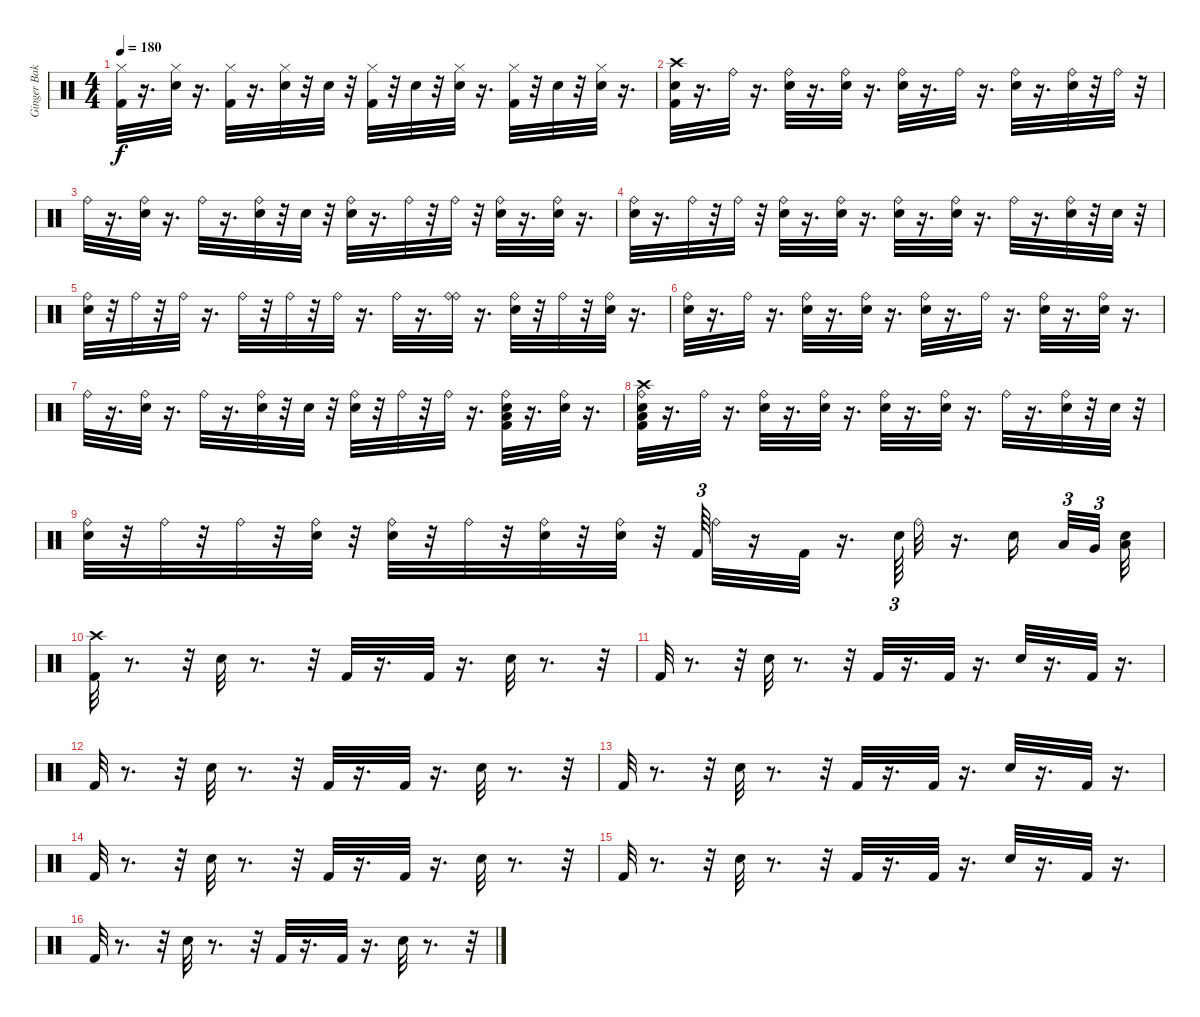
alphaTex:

\track ("Ginger Baker" "Ginger Bak") {instrument percussion}
\staff {score}
\articulation defaults
\ts (4 4)
\tempo 180
\clef neutral
\ks c
("Hi-Hat (closed)" "Kick (hit) 2").32{dy f} r.16{d} ("Hi-Hat (closed)" "Snare (hit) 2").32 r.16{d} ("Hi-Hat (closed)" "Kick (hit) 2").32 r.16{d} ("Hi-Hat (closed)" "Snare (hit) 2").32 r.32 "Snare (hit) 2".32 r.32 ("Hi-Hat (closed)" "Kick (hit) 2").32 r.32 "Snare (hit) 2".32 r.32 ("Hi-Hat (closed)" "Snare (hit) 2").32 r.16{d} ("Hi-Hat (closed)" "Kick (hit) 2").32 r.32 "Snare (hit) 2".32 r.32 ("Snare (hit) 2" "Hi-Hat (closed)").32 r.16{d} |
("Kick (hit) 2" "Crash high (hit)" "Snare (hit) 2").32 r.16{d} "Ride (bell)".32 r.16{d} ("Ride (bell)" "Snare (hit) 2").32 r.16{d} ("Ride (bell)" "Snare (hit) 2").32 r.16{d} ("Ride (bell)" "Snare (hit) 2").32 r.16{d} "Ride (bell)".32 r.16{d} ("Ride (bell)" "Snare (hit) 2").32 r.16{d} ("Ride (bell)" "Snare (hit) 2").32 r.32 "Ride (bell)".32 r.32 |
"Ride (bell)".32 r.16{d} ("Ride (bell)" "Snare (hit) 2").32 r.16{d} "Ride (bell)".32 r.16{d} ("Ride (bell)" "Snare (hit) 2").32 r.32 "Snare (hit) 2".32 r.32 ("Ride (bell)" "Snare (hit) 2").32 r.16{d} "Ride (bell)".32 r.32 "Ride (bell)".32 r.32 ("Ride (bell)" "Snare (hit) 2").32 r.16{d} ("Ride (bell)" "Snare (hit) 2").32 r.16{d} |
("Ride (bell)" "Snare (hit) 2").32 r.16{d} "Ride (bell)".32 r.32 "Ride (bell)".32 r.32 ("Ride (bell)" "Snare (hit) 2").32 r.16{d} ("Ride (bell)" "Snare (hit) 2").32 r.16{d} ("Ride (bell)" "Snare (hit) 2").32 r.16{d} ("Ride (bell)" "Snare (hit) 2").32 r.16{d} "Ride (bell)".32 r.16{d} ("Ride (bell)" "Snare (hit) 2").32 r.32 "Snare (hit) 2".32 r.32 |
("Ride (bell)" "Snare (hit) 2").32 r.32 "Ride (bell)".32 r.32 "Ride (bell)".32 r.16{d} "Ride (bell)".32 r.32 "Ride (bell)".32 r.32 "Ride (bell)".32 r.16{d} "Ride (bell)".32 r.16{d} ("Ride (bell)" "Ride (bell)").32 r.16{d} ("Ride (bell)" "Snare (hit) 2").32 r.32 "Ride (bell)".32 r.32 ("Ride (bell)" "Snare (hit) 2").32 r.16{d} |
("Ride (bell)" "Snare (hit) 2").32 r.16{d} "Ride (bell)".32 r.16{d} ("Ride (bell)" "Snare (hit) 2").32 r.16{d} ("Ride (bell)" "Snare (hit) 2").32 r.16{d} ("Ride (bell)" "Snare (hit) 2").32 r.16{d} "Ride (bell)".32 r.16{d} ("Ride (bell)" "Snare (hit) 2").32 r.16{d} ("Ride (bell)" "Snare (hit) 2").32 r.16{d} |
"Ride (bell)".32 r.16{d} ("Ride (bell)" "Snare (hit) 2").32 r.16{d} "Ride (bell)".32 r.16{d} ("Ride (bell)" "Snare (hit) 2").32 r.32 "Snare (hit) 2".32 r.32 ("Ride (bell)" "Snare (hit) 2").32 r.32 "Ride (bell)".32 r.32 "Ride (bell)".32 r.16{d} ("Kick (hit) 2" "Low Floor Tom (hit)" "Ride (bell)" "Snare (hit) 2").32 r.16{d} ("Ride (bell)" "Snare (hit) 2").32 r.16{d} |
("Crash high (hit)" "Kick (hit) 2" "Low Floor Tom (hit)" "Ride (bell)" "Snare (hit) 2").32 r.16{d} "Ride (bell)".32 r.16{d} ("Ride (bell)" "Snare (hit) 2").32 r.16{d} ("Ride (bell)" "Snare (hit) 2").32 r.16{d} ("Ride (bell)" "Snare (hit) 2").32 r.16{d} ("Ride (bell)" "Snare (hit) 2").32 r.16{d} "Ride (bell)".32 r.16{d} ("Ride (bell)" "Snare (hit) 2").32 r.32 "Snare (hit) 2".32 r.32 |
("Ride (bell)" "Snare (hit) 2").32 r.32 "Ride (bell)".32 r.32 "Ride (bell)".32 r.32 ("Ride (bell)" "Snare (hit) 2").32 r.32 ("Ride (bell)" "Snare (hit) 2").32 r.32 "Ride (bell)".32 r.32 ("Ride (bell)" "Snare (hit) 2").32 r.32 ("Ride (bell)" "Snare (hit) 2").32 r.32 "Kick (hit) 2".64{tu (3 2)} "Ride (bell)".32 r.16 "Kick (hit) 2".32 r.16{d} "Snare (hit) 2".64{tu (3 2)} "Ride (bell)".32 r.16{d} "Snare (hit) 2".16 "Low Tom (hit)".32{tu (3 2)} "Very Low Tom (hit)".32{tu (3 2)} ("Snare (hit) 2" "Low Floor Tom (hit)").32 |
("Crash high (hit)" "Kick (hit) 2").32 r.8{d} r.32 "Snare (hit) 2".32 r.8{d} r.32 "Kick (hit) 2".32 r.16{d} "Kick (hit) 2".32 r.16{d} "Snare (hit) 2".32 r.8{d} r.32 |
"Kick (hit) 2".32 r.8{d} r.32 "Snare (hit) 2".32 r.8{d} r.32 "Kick (hit) 2".32 r.16{d} "Kick (hit) 2".32 r.16{d} "Snare (hit) 2".32 r.16{d} "Kick (hit) 2".32 r.16{d} |
"Kick (hit) 2".32 r.8{d} r.32 "Snare (hit) 2".32 r.8{d} r.32 "Kick (hit) 2".32 r.16{d} "Kick (hit) 2".32 r.16{d} "Snare (hit) 2".32 r.8{d} r.32 |
"Kick (hit) 2".32 r.8{d} r.32 "Snare (hit) 2".32 r.8{d} r.32 "Kick (hit) 2".32 r.16{d} "Kick (hit) 2".32 r.16{d} "Snare (hit) 2".32 r.16{d} "Kick (hit) 2".32 r.16{d} |
"Kick (hit) 2".32 r.8{d} r.32 "Snare (hit) 2".32 r.8{d} r.32 "Kick (hit) 2".32 r.16{d} "Kick (hit) 2".32 r.16{d} "Snare (hit) 2".32 r.8{d} r.32 |
"Kick (hit) 2".32 r.8{d} r.32 "Snare (hit) 2".32 r.8{d} r.32 "Kick (hit) 2".32 r.16{d} "Kick (hit) 2".32 r.16{d} "Snare (hit) 2".32 r.16{d} "Kick (hit) 2".32 r.16{d} |
"Kick (hit) 2".32 r.8{d} r.32 "Snare (hit) 2".32 r.8{d} r.32 "Kick (hit) 2".32 r.16{d} "Kick (hit) 2".32 r.16{d} "Snare (hit) 2".32 r.8{d} r.32
